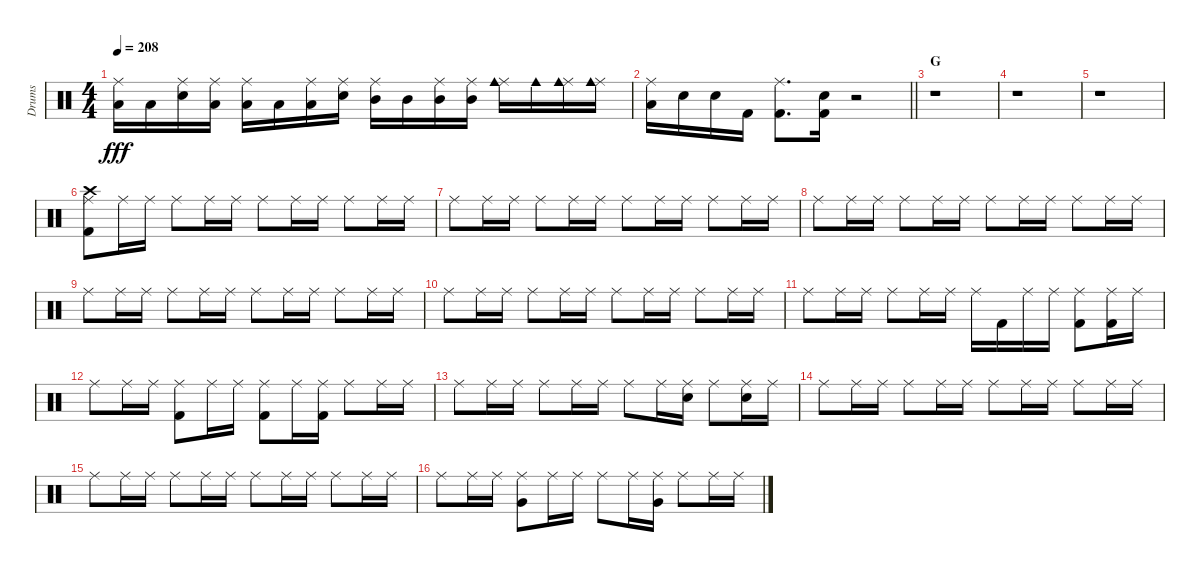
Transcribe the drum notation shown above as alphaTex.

\track ("Drums" "Drums") {instrument percussion}
\staff {score}
\articulation defaults
\ts (4 4)
\tempo 208
\clef neutral
\ks c
("Ride (middle)" "Low Tom (hit)").16{dy fff} "Low Tom (hit)".16 ("Ride (middle)" "Snare (hit) 2").16 ("Ride (middle)" "Low Tom (hit)").16 ("Ride (middle)" "Low Tom (hit)").16 "Low Tom (hit)".16 ("Ride (middle)" "Low Tom (hit)").16 ("Ride (middle)" "Snare (hit) 2").16 ("Ride (middle)" "Mid Tom (hit)").16 "Mid Tom (hit)".16 ("Ride (middle)" "Mid Tom (hit)").16 ("Ride (middle)" "Mid Tom (hit)").16 ("Ride (middle)" "Cowbell medium (hit)").16 "Cowbell medium (hit)".16 ("Ride (middle)" "Cowbell medium (hit)").16 ("Ride (middle)" "Cowbell medium (hit)").16 |
\barLineRight lightlight
("Ride (middle)" "Low Tom (hit)").16 "Snare (hit) 2".16 "Snare (hit) 2".16 "Kick (hit) 2".16 ("Ride (middle)" "Kick (hit) 2").8{d} ("Snare (hit) 2" "Kick (hit) 2").16 r.2 |
\section ("" "G")
r.1 |
r.1 |
r.1 |
("Ride (middle)" "Crash high (hit)" "Kick (hit) 2").8 "Ride (middle)".16 "Ride (middle)".16 "Ride (middle)".8 "Ride (middle)".16 "Ride (middle)".16 "Ride (middle)".8 "Ride (middle)".16 "Ride (middle)".16 "Ride (middle)".8 "Ride (middle)".16 "Ride (middle)".16 |
"Ride (middle)".8 "Ride (middle)".16 "Ride (middle)".16 "Ride (middle)".8 "Ride (middle)".16 "Ride (middle)".16 "Ride (middle)".8 "Ride (middle)".16 "Ride (middle)".16 "Ride (middle)".8 "Ride (middle)".16 "Ride (middle)".16 |
"Ride (middle)".8 "Ride (middle)".16 "Ride (middle)".16 "Ride (middle)".8 "Ride (middle)".16 "Ride (middle)".16 "Ride (middle)".8 "Ride (middle)".16 "Ride (middle)".16 "Ride (middle)".8 "Ride (middle)".16 "Ride (middle)".16 |
"Ride (middle)".8 "Ride (middle)".16 "Ride (middle)".16 "Ride (middle)".8 "Ride (middle)".16 "Ride (middle)".16 "Ride (middle)".8 "Ride (middle)".16 "Ride (middle)".16 "Ride (middle)".8 "Ride (middle)".16 "Ride (middle)".16 |
"Ride (middle)".8 "Ride (middle)".16 "Ride (middle)".16 "Ride (middle)".8 "Ride (middle)".16 "Ride (middle)".16 "Ride (middle)".8 "Ride (middle)".16 "Ride (middle)".16 "Ride (middle)".8 "Ride (middle)".16 "Ride (middle)".16 |
"Ride (middle)".8 "Ride (middle)".16 "Ride (middle)".16 "Ride (middle)".8 "Ride (middle)".16 "Ride (middle)".16 "Ride (middle)".16 "Kick (hit) 2".16 "Ride (middle)".16 "Ride (middle)".16 ("Ride (middle)" "Kick (hit) 2").8 ("Ride (middle)" "Kick (hit) 2").16 "Ride (middle)".16 |
"Ride (middle)".8 "Ride (middle)".16 "Ride (middle)".16 ("Ride (middle)" "Kick (hit) 2").8 "Ride (middle)".16 "Ride (middle)".16 ("Ride (middle)" "Kick (hit) 2").8 "Ride (middle)".16 ("Ride (middle)" "Kick (hit) 2").16 "Ride (middle)".8 "Ride (middle)".16 "Ride (middle)".16 |
"Ride (middle)".8 "Ride (middle)".16 "Ride (middle)".16 "Ride (middle)".8 "Ride (middle)".16 "Ride (middle)".16 "Ride (middle)".8 "Ride (middle)".16 ("Ride (middle)" "Snare (hit) 2").16 "Ride (middle)".8 ("Ride (middle)" "Snare (hit) 2").16 "Ride (middle)".16 |
"Ride (middle)".8 "Ride (middle)".16 "Ride (middle)".16 "Ride (middle)".8 "Ride (middle)".16 "Ride (middle)".16 "Ride (middle)".8 "Ride (middle)".16 "Ride (middle)".16 "Ride (middle)".8 "Ride (middle)".16 "Ride (middle)".16 |
"Ride (middle)".8 "Ride (middle)".16 "Ride (middle)".16 "Ride (middle)".8 "Ride (middle)".16 "Ride (middle)".16 "Ride (middle)".8 "Ride (middle)".16 "Ride (middle)".16 "Ride (middle)".8 "Ride (middle)".16 "Ride (middle)".16 |
"Ride (middle)".8 "Ride (middle)".16 "Ride (middle)".16 ("Ride (middle)" "Very Low Tom (hit)").8 "Ride (middle)".16 "Ride (middle)".16 "Ride (middle)".8 "Ride (middle)".16 ("Ride (middle)" "Very Low Tom (hit)").16 "Ride (middle)".8 "Ride (middle)".16 "Ride (middle)".16
